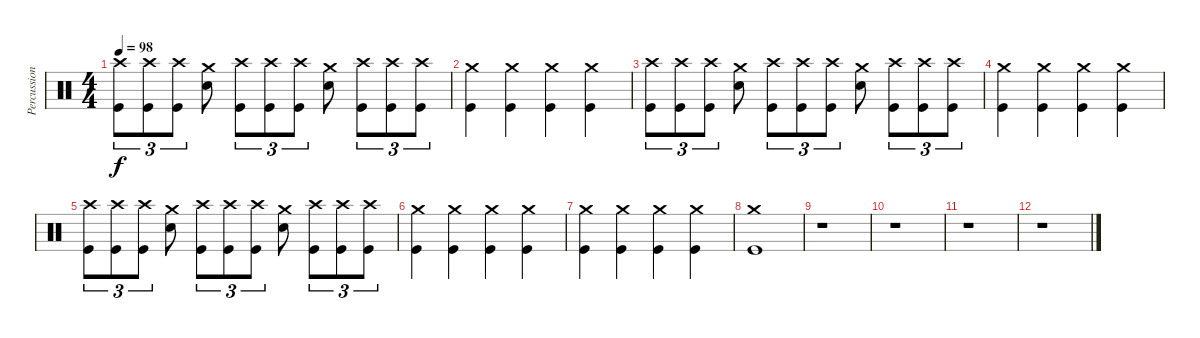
\track ("Percussion" "Percussion") {instrument percussion}
\staff {score}
\articulation defaults
\ts (4 4)
\tempo 98
\clef neutral
\ks c
("Crash high (hit)" "Kick (hit)").8{tu (3 2) dy f} ("Crash high (hit)" "Kick (hit)").8{tu (3 2)} ("Crash high (hit)" "Kick (hit)").8{tu (3 2)} ("Crash medium (hit)" "Snare (hit) 2").8 ("Crash high (hit)" "Kick (hit)").8{tu (3 2)} ("Crash high (hit)" "Kick (hit)").8{tu (3 2)} ("Crash high (hit)" "Kick (hit)").8{tu (3 2)} ("Crash medium (hit)" "Snare (hit) 2").8 ("Crash high (hit)" "Kick (hit)").8{tu (3 2)} ("Crash high (hit)" "Kick (hit)").8{tu (3 2)} ("Crash high (hit)" "Kick (hit)").8{tu (3 2)} |
("Crash medium (hit)" "Kick (hit)").4 ("Crash medium (hit)" "Kick (hit)").4 ("Crash medium (hit)" "Kick (hit)").4 ("Crash medium (hit)" "Kick (hit)").4 |
("Crash high (hit)" "Kick (hit)").8{tu (3 2)} ("Crash high (hit)" "Kick (hit)").8{tu (3 2)} ("Crash high (hit)" "Kick (hit)").8{tu (3 2)} ("Crash medium (hit)" "Snare (hit) 2").8 ("Crash high (hit)" "Kick (hit)").8{tu (3 2)} ("Crash high (hit)" "Kick (hit)").8{tu (3 2)} ("Crash high (hit)" "Kick (hit)").8{tu (3 2)} ("Crash medium (hit)" "Snare (hit) 2").8 ("Crash high (hit)" "Kick (hit)").8{tu (3 2)} ("Crash high (hit)" "Kick (hit)").8{tu (3 2)} ("Crash high (hit)" "Kick (hit)").8{tu (3 2)} |
("Crash medium (hit)" "Kick (hit)").4 ("Crash medium (hit)" "Kick (hit)").4 ("Crash medium (hit)" "Kick (hit)").4 ("Crash medium (hit)" "Kick (hit)").4 |
("Crash high (hit)" "Kick (hit)").8{tu (3 2)} ("Crash high (hit)" "Kick (hit)").8{tu (3 2)} ("Crash high (hit)" "Kick (hit)").8{tu (3 2)} ("Crash medium (hit)" "Snare (hit) 2").8 ("Crash high (hit)" "Kick (hit)").8{tu (3 2)} ("Crash high (hit)" "Kick (hit)").8{tu (3 2)} ("Crash high (hit)" "Kick (hit)").8{tu (3 2)} ("Crash medium (hit)" "Snare (hit) 2").8 ("Crash high (hit)" "Kick (hit)").8{tu (3 2)} ("Crash high (hit)" "Kick (hit)").8{tu (3 2)} ("Crash high (hit)" "Kick (hit)").8{tu (3 2)} |
("Crash medium (hit)" "Kick (hit)").4 ("Crash medium (hit)" "Kick (hit)").4 ("Crash medium (hit)" "Kick (hit)").4 ("Crash medium (hit)" "Kick (hit)").4 |
("Crash medium (hit)" "Kick (hit)").4 ("Crash medium (hit)" "Kick (hit)").4 ("Crash medium (hit)" "Kick (hit)").4 ("Crash medium (hit)" "Kick (hit)").4 |
("Crash medium (hit)" "Kick (hit)").1 |
r.1 |
r.1 |
r.1 |
r.1
